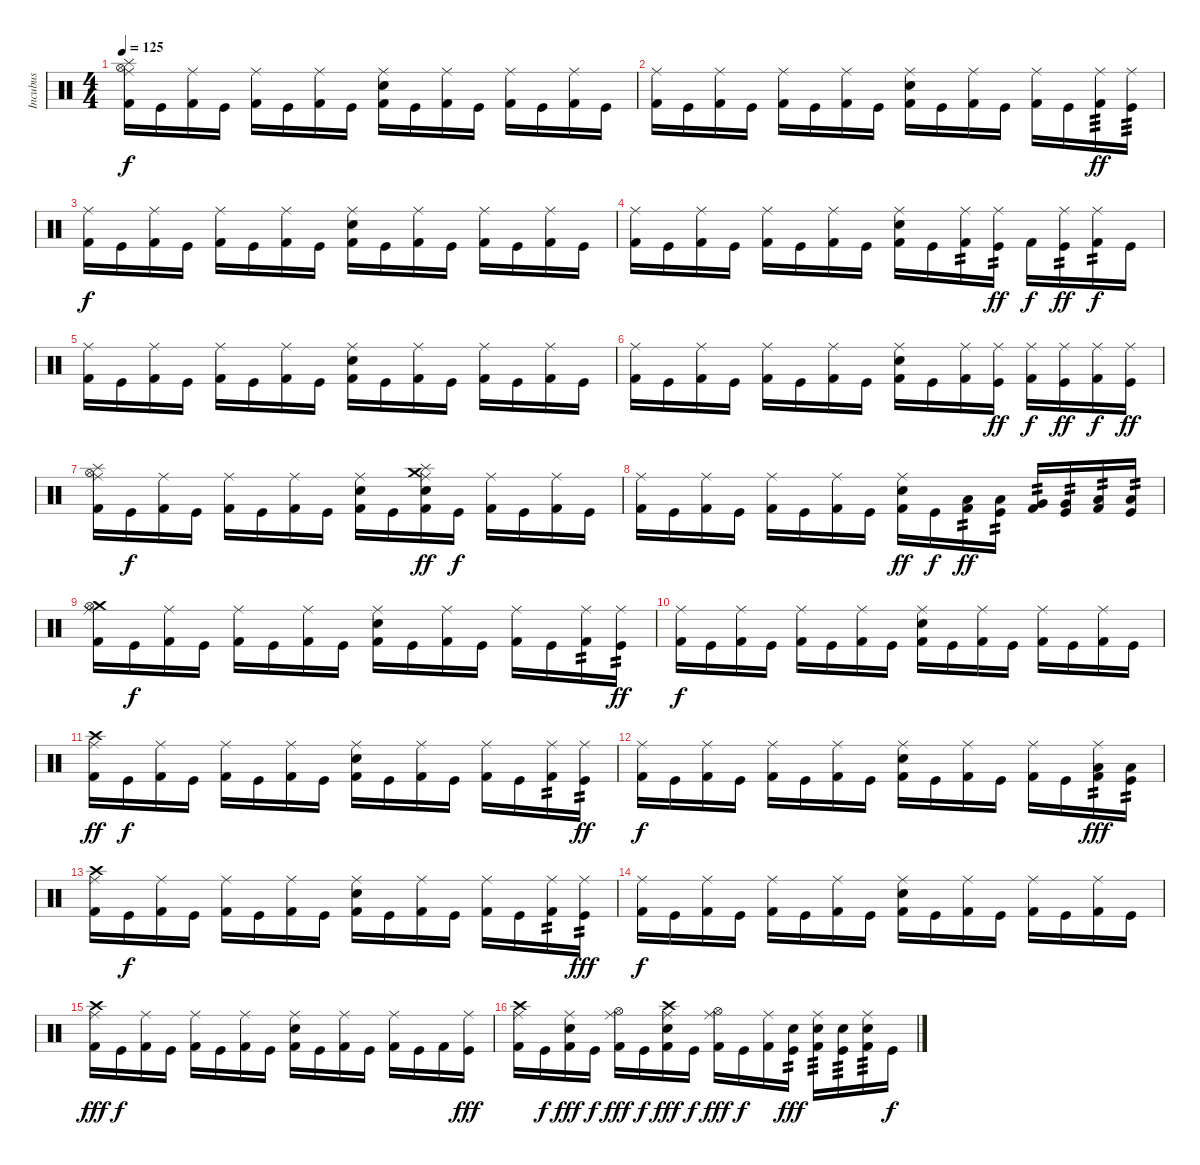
\track ("Incubus" "Incubus") {instrument percussion}
\staff {score}
\articulation defaults
\ts (4 4)
\tempo 125
\clef neutral
\ks c
("Hi-Hat (open)" "Splash (hit)" "Ride (middle)" "Kick (hit) 2").16{dy f} "Kick (hit)".16 ("Ride (middle)" "Kick (hit) 2").16 "Kick (hit)".16 ("Ride (middle)" "Kick (hit) 2").16 "Kick (hit)".16 ("Ride (middle)" "Kick (hit) 2").16 "Kick (hit)".16 ("Ride (middle)" "Snare (hit) 2" "Kick (hit) 2").16 "Kick (hit)".16 ("Ride (middle)" "Kick (hit) 2").16 "Kick (hit)".16 ("Ride (middle)" "Kick (hit) 2").16 "Kick (hit)".16 ("Ride (middle)" "Kick (hit) 2").16 "Kick (hit)".16 |
("Ride (middle)" "Kick (hit) 2").16 "Kick (hit)".16 ("Ride (middle)" "Kick (hit) 2").16 "Kick (hit)".16 ("Ride (middle)" "Kick (hit) 2").16 "Kick (hit)".16 ("Ride (middle)" "Kick (hit) 2").16 "Kick (hit)".16 ("Ride (middle)" "Snare (hit) 2" "Kick (hit) 2").16 "Kick (hit)".16 ("Ride (middle)" "Kick (hit) 2").16 "Kick (hit)".16 ("Ride (middle)" "Kick (hit) 2").16 "Kick (hit)".16 ("Ride (middle)" "Kick (hit) 2").16{tp 3 dy ff} ("Ride (middle)" "Kick (hit)").16{tp 3} |
("Ride (middle)" "Kick (hit) 2").16{dy f} "Kick (hit)".16 ("Ride (middle)" "Kick (hit) 2").16 "Kick (hit)".16 ("Ride (middle)" "Kick (hit) 2").16 "Kick (hit)".16 ("Ride (middle)" "Kick (hit) 2").16 "Kick (hit)".16 ("Ride (middle)" "Snare (hit) 2" "Kick (hit) 2").16 "Kick (hit)".16 ("Ride (middle)" "Kick (hit) 2").16 "Kick (hit)".16 ("Ride (middle)" "Kick (hit) 2").16 "Kick (hit)".16 ("Ride (middle)" "Kick (hit) 2").16 "Kick (hit)".16 |
("Ride (middle)" "Kick (hit) 2").16 "Kick (hit)".16 ("Ride (middle)" "Kick (hit) 2").16 "Kick (hit)".16 ("Ride (middle)" "Kick (hit) 2").16 "Kick (hit)".16 ("Ride (middle)" "Kick (hit) 2").16 "Kick (hit)".16 ("Ride (middle)" "Snare (hit) 2" "Kick (hit) 2").16 "Kick (hit)".16 ("Ride (middle)" "Kick (hit) 2").16{tp 2} ("Ride (middle)" "Kick (hit)").16{tp 2 dy ff} "Kick (hit) 2".16{dy f} ("Ride (middle)" "Kick (hit)").16{tp 2 dy ff} ("Ride (middle)" "Kick (hit) 2").16{tp 2 dy f} "Kick (hit)".16 |
("Ride (middle)" "Kick (hit) 2").16 "Kick (hit)".16 ("Ride (middle)" "Kick (hit) 2").16 "Kick (hit)".16 ("Ride (middle)" "Kick (hit) 2").16 "Kick (hit)".16 ("Ride (middle)" "Kick (hit) 2").16 "Kick (hit)".16 ("Ride (middle)" "Snare (hit) 2" "Kick (hit) 2").16 "Kick (hit)".16 ("Ride (middle)" "Kick (hit) 2").16 "Kick (hit)".16 ("Ride (middle)" "Kick (hit) 2").16 "Kick (hit)".16 ("Ride (middle)" "Kick (hit) 2").16 "Kick (hit)".16 |
("Ride (middle)" "Kick (hit) 2").16 "Kick (hit)".16 ("Ride (middle)" "Kick (hit) 2").16 "Kick (hit)".16 ("Ride (middle)" "Kick (hit) 2").16 "Kick (hit)".16 ("Ride (middle)" "Kick (hit) 2").16 "Kick (hit)".16 ("Ride (middle)" "Snare (hit) 2" "Kick (hit) 2").16 "Kick (hit)".16 ("Ride (middle)" "Kick (hit) 2").16 ("Ride (middle)" "Kick (hit)").16{dy ff} ("Ride (middle)" "Kick (hit) 2").16{dy f} ("Ride (middle)" "Kick (hit)").16{dy ff} ("Ride (middle)" "Kick (hit) 2").16{dy f} ("Ride (middle)" "Kick (hit)").16{dy ff} |
("Hi-Hat (open)" "Splash (hit)" "Ride (middle)" "Kick (hit) 2").16 "Kick (hit)".16{dy f} ("Ride (middle)" "Kick (hit) 2").16 "Kick (hit)".16 ("Ride (middle)" "Kick (hit) 2").16 "Kick (hit)".16 ("Ride (middle)" "Kick (hit) 2").16 "Kick (hit)".16 ("Ride (middle)" "Snare (hit) 2" "Kick (hit) 2").16 "Kick (hit)".16 ("Crash medium (hit)" "Splash (hit)" "Ride (middle)" "Snare (hit) 2" "Kick (hit) 2").16{dy ff} "Kick (hit)".16{dy f} ("Ride (middle)" "Kick (hit) 2").16 "Kick (hit)".16 ("Ride (middle)" "Kick (hit) 2").16 "Kick (hit)".16 |
("Ride (middle)" "Kick (hit) 2").16 "Kick (hit)".16 ("Ride (middle)" "Kick (hit) 2").16 "Kick (hit)".16 ("Ride (middle)" "Kick (hit) 2").16 "Kick (hit)".16 ("Ride (middle)" "Kick (hit) 2").16 "Kick (hit)".16 ("Ride (middle)" "Snare (hit) 2" "Kick (hit) 2").16{dy ff} "Kick (hit)".16{dy f} ("Low Tom (hit)" "Kick (hit) 2").16{tp 2 dy ff} ("Low Tom (hit)" "Kick (hit)").16{tp 2} ("Very Low Tom (hit)" "Kick (hit) 2").16{tp 2} ("Very Low Tom (hit)" "Kick (hit)").16{tp 2} ("Low Floor Tom (hit)" "Kick (hit) 2").16{tp 2} ("Low Floor Tom (hit)" "Kick (hit)").16{tp 2} |
("Crash medium (hit)" "Hi-Hat (open)" "Ride (middle)" "Kick (hit) 2").16 "Kick (hit)".16{dy f} ("Ride (middle)" "Kick (hit) 2").16 "Kick (hit)".16 ("Ride (middle)" "Kick (hit) 2").16 "Kick (hit)".16 ("Ride (middle)" "Kick (hit) 2").16 "Kick (hit)".16 ("Ride (middle)" "Snare (hit) 2" "Kick (hit) 2").16 "Kick (hit)".16 ("Ride (middle)" "Kick (hit) 2").16 "Kick (hit)".16 ("Ride (middle)" "Kick (hit) 2").16 "Kick (hit)".16 ("Ride (middle)" "Kick (hit) 2").16{tp 2} ("Ride (middle)" "Kick (hit)").16{tp 2 dy ff} |
("Ride (middle)" "Kick (hit) 2").16{dy f} "Kick (hit)".16 ("Ride (middle)" "Kick (hit) 2").16 "Kick (hit)".16 ("Ride (middle)" "Kick (hit) 2").16 "Kick (hit)".16 ("Ride (middle)" "Kick (hit) 2").16 "Kick (hit)".16 ("Ride (middle)" "Snare (hit) 2" "Kick (hit) 2").16 "Kick (hit)".16 ("Ride (middle)" "Kick (hit) 2").16 "Kick (hit)".16 ("Ride (middle)" "Kick (hit) 2").16 "Kick (hit)".16 ("Ride (middle)" "Kick (hit) 2").16 "Kick (hit)".16 |
("Crash high (hit)" "Ride (middle)" "Kick (hit) 2").16{dy ff} "Kick (hit)".16{dy f} ("Ride (middle)" "Kick (hit) 2").16 "Kick (hit)".16 ("Ride (middle)" "Kick (hit) 2").16 "Kick (hit)".16 ("Ride (middle)" "Kick (hit) 2").16 "Kick (hit)".16 ("Ride (middle)" "Snare (hit) 2" "Kick (hit) 2").16 "Kick (hit)".16 ("Ride (middle)" "Kick (hit) 2").16 "Kick (hit)".16 ("Ride (middle)" "Kick (hit) 2").16 "Kick (hit)".16 ("Ride (middle)" "Kick (hit) 2").16{tp 2} ("Ride (middle)" "Kick (hit)").16{tp 2 dy ff} |
("Ride (middle)" "Kick (hit) 2").16{dy f} "Kick (hit)".16 ("Ride (middle)" "Kick (hit) 2").16 "Kick (hit)".16 ("Ride (middle)" "Kick (hit) 2").16 "Kick (hit)".16 ("Ride (middle)" "Kick (hit) 2").16 "Kick (hit)".16 ("Ride (middle)" "Snare (hit) 2" "Kick (hit) 2").16 "Kick (hit)".16 ("Ride (middle)" "Kick (hit) 2").16 "Kick (hit)".16 ("Ride (middle)" "Kick (hit) 2").16 "Kick (hit)".16 ("Ride (middle)" "Low Tom (hit)" "Kick (hit) 2").16{tp 2 dy fff} ("Low Tom (hit)" "Kick (hit)").16{tp 2} |
("Crash high (hit)" "Ride (middle)" "Kick (hit) 2").16 "Kick (hit)".16{dy f} ("Ride (middle)" "Kick (hit) 2").16 "Kick (hit)".16 ("Ride (middle)" "Kick (hit) 2").16 "Kick (hit)".16 ("Ride (middle)" "Kick (hit) 2").16 "Kick (hit)".16 ("Ride (middle)" "Snare (hit) 2" "Kick (hit) 2").16 "Kick (hit)".16 ("Ride (middle)" "Kick (hit) 2").16 "Kick (hit)".16 ("Ride (middle)" "Kick (hit) 2").16 "Kick (hit)".16 ("Ride (middle)" "Kick (hit) 2").16{tp 2} ("Ride (middle)" "Kick (hit)").16{tp 2 dy fff} |
("Ride (middle)" "Kick (hit) 2").16{dy f} "Kick (hit)".16 ("Ride (middle)" "Kick (hit) 2").16 "Kick (hit)".16 ("Ride (middle)" "Kick (hit) 2").16 "Kick (hit)".16 ("Ride (middle)" "Kick (hit) 2").16 "Kick (hit)".16 ("Ride (middle)" "Snare (hit) 2" "Kick (hit) 2").16 "Kick (hit)".16 ("Ride (middle)" "Kick (hit) 2").16 "Kick (hit)".16 ("Ride (middle)" "Kick (hit) 2").16 "Kick (hit)".16 ("Ride (middle)" "Kick (hit) 2").16 "Kick (hit)".16 |
("Crash high (hit)" "Ride (middle)" "Kick (hit) 2").16{dy fff} "Kick (hit)".16{dy f} ("Ride (middle)" "Kick (hit) 2").16 "Kick (hit)".16 ("Ride (middle)" "Kick (hit) 2").16 "Kick (hit)".16 ("Ride (middle)" "Kick (hit) 2").16 "Kick (hit)".16 ("Ride (middle)" "Snare (hit) 2" "Kick (hit) 2").16 "Kick (hit)".16 ("Ride (middle)" "Kick (hit) 2").16 "Kick (hit)".16 ("Ride (middle)" "Kick (hit) 2").16 "Kick (hit)".16 "Kick (hit) 2".16 ("Ride (middle)" "Kick (hit)").16{dy fff} |
("Crash high (hit)" "Ride (middle)" "Kick (hit) 2").16 "Kick (hit)".16{dy f} ("Ride (middle)" "Snare (hit) 2" "Kick (hit) 2").16{dy fff} "Kick (hit)".16{dy f} ("Hi-Hat (open)" "Ride (middle)" "Kick (hit) 2").16{dy fff} "Kick (hit)".16{dy f} ("Crash high (hit)" "Ride (middle)" "Snare (hit) 2" "Kick (hit) 2").16{dy fff} "Kick (hit)".16{dy f} ("Hi-Hat (open)" "Ride (middle)" "Kick (hit) 2").16{dy fff} "Kick (hit)".16{dy f} ("Ride (middle)" "Kick (hit) 2").16 ("Snare (hit) 2" "Kick (hit)").16{tp 2 dy fff} ("Ride (middle)" "Snare (hit) 2" "Kick (hit) 2").16{tp 3} ("Snare (hit) 2" "Kick (hit)").16{tp 3} ("Ride (middle)" "Snare (hit) 2" "Kick (hit) 2").16{tp 3} "Kick (hit)".16{dy f}
